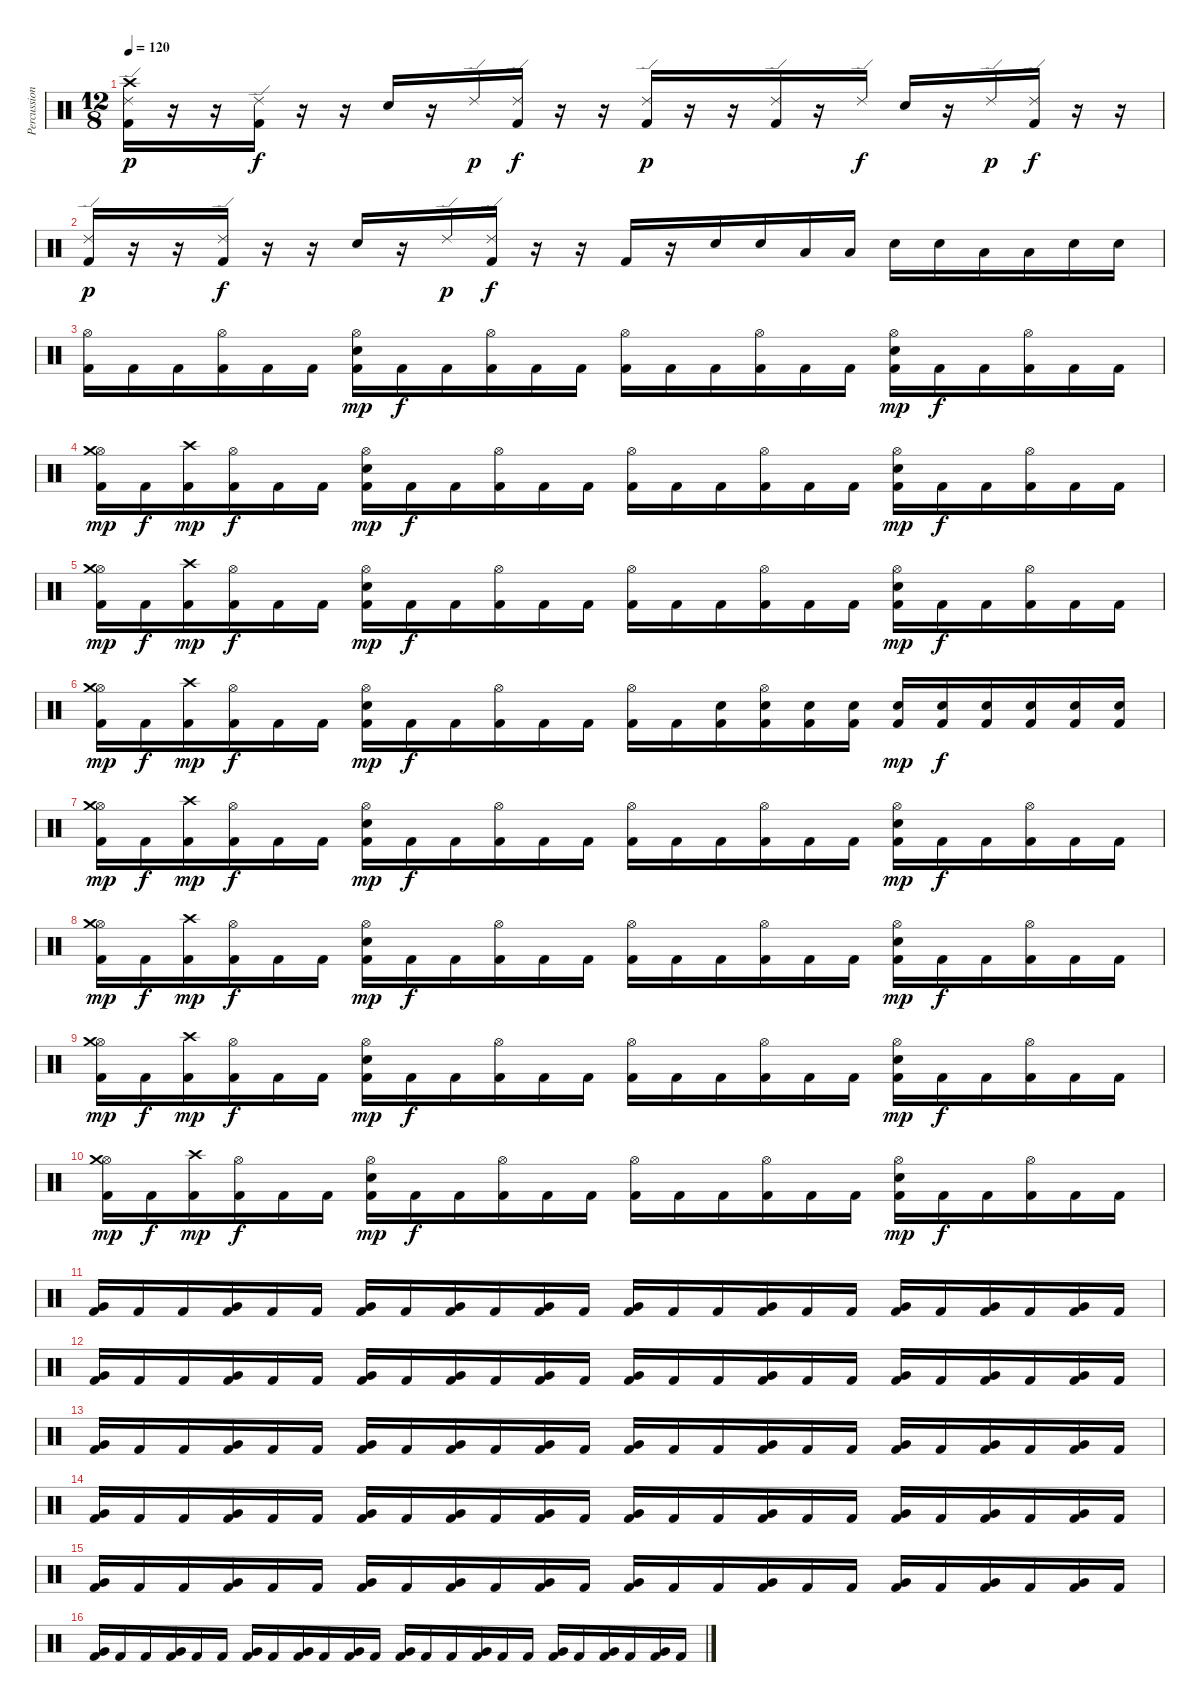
\track ("Percussions" "Percussion") {instrument percussion}
\staff {score}
\articulation defaults
\ts (12 8)
\tempo 120
\clef neutral
\ks c
("Ride (edge) 2" "Kick (hit) 2" "Crash high (hit)").16{dy p} r.16 r.16 ("Ride (edge) 2" "Kick (hit) 2").16{dy f} r.16 r.16 "Snare (hit) 2".16 r.16 "Ride (edge) 2".16{dy p} ("Ride (edge) 2" "Kick (hit) 2").16{dy f} r.16 r.16 ("Ride (edge) 2" "Kick (hit) 2").16{dy p} r.16 r.16 ("Ride (edge) 2" "Kick (hit) 2").16 r.16 "Ride (edge) 2".16{dy f} "Snare (hit) 2".16 r.16 "Ride (edge) 2".16{dy p} ("Ride (edge) 2" "Kick (hit) 2").16{dy f} r.16 r.16 |
("Ride (edge) 2" "Kick (hit) 2").16{dy p} r.16 r.16 ("Ride (edge) 2" "Kick (hit) 2").16{dy f} r.16 r.16 "Snare (hit) 2".16 r.16 "Ride (edge) 2".16{dy p} ("Ride (edge) 2" "Kick (hit) 2").16{dy f} r.16 r.16 "Kick (hit) 2".16 r.16 "Snare (hit) 2".16 "Snare (hit) 2".16 "Low Tom (hit)".16 "Low Tom (hit)".16 "Snare (hit) 2".16 "Snare (hit) 2".16 "Low Tom (hit)".16 "Low Tom (hit)".16 "Snare (hit) 2".16 "Snare (hit) 2".16 |
("Hi-Hat (open)" "Kick (hit) 2").16 "Kick (hit) 2".16 "Kick (hit) 2".16 ("Hi-Hat (open)" "Kick (hit) 2").16 "Kick (hit) 2".16 "Kick (hit) 2".16 ("Hi-Hat (open)" "Kick (hit) 2" "Snare (hit) 2").16{dy mp} "Kick (hit) 2".16{dy f} "Kick (hit) 2".16 ("Hi-Hat (open)" "Kick (hit) 2").16 "Kick (hit) 2".16 "Kick (hit) 2".16 ("Hi-Hat (open)" "Kick (hit) 2").16 "Kick (hit) 2".16 "Kick (hit) 2".16 ("Hi-Hat (open)" "Kick (hit) 2").16 "Kick (hit) 2".16 "Kick (hit) 2".16 ("Hi-Hat (open)" "Kick (hit) 2" "Snare (hit) 2").16{dy mp} "Kick (hit) 2".16{dy f} "Kick (hit) 2".16 ("Hi-Hat (open)" "Kick (hit) 2").16 "Kick (hit) 2".16 "Kick (hit) 2".16 |
("Hi-Hat (open)" "Kick (hit) 2" "Crash medium (hit)").16{dy mp} "Kick (hit) 2".16{dy f} ("Kick (hit) 2" "Crash high (hit)").16{dy mp} ("Hi-Hat (open)" "Kick (hit) 2").16{dy f} "Kick (hit) 2".16 "Kick (hit) 2".16 ("Hi-Hat (open)" "Kick (hit) 2" "Snare (hit) 2").16{dy mp} "Kick (hit) 2".16{dy f} "Kick (hit) 2".16 ("Hi-Hat (open)" "Kick (hit) 2").16 "Kick (hit) 2".16 "Kick (hit) 2".16 ("Hi-Hat (open)" "Kick (hit) 2").16 "Kick (hit) 2".16 "Kick (hit) 2".16 ("Hi-Hat (open)" "Kick (hit) 2").16 "Kick (hit) 2".16 "Kick (hit) 2".16 ("Hi-Hat (open)" "Kick (hit) 2" "Snare (hit) 2").16{dy mp} "Kick (hit) 2".16{dy f} "Kick (hit) 2".16 ("Hi-Hat (open)" "Kick (hit) 2").16 "Kick (hit) 2".16 "Kick (hit) 2".16 |
("Hi-Hat (open)" "Kick (hit) 2" "Crash medium (hit)").16{dy mp} "Kick (hit) 2".16{dy f} ("Kick (hit) 2" "Crash high (hit)").16{dy mp} ("Hi-Hat (open)" "Kick (hit) 2").16{dy f} "Kick (hit) 2".16 "Kick (hit) 2".16 ("Hi-Hat (open)" "Kick (hit) 2" "Snare (hit) 2").16{dy mp} "Kick (hit) 2".16{dy f} "Kick (hit) 2".16 ("Hi-Hat (open)" "Kick (hit) 2").16 "Kick (hit) 2".16 "Kick (hit) 2".16 ("Hi-Hat (open)" "Kick (hit) 2").16 "Kick (hit) 2".16 "Kick (hit) 2".16 ("Hi-Hat (open)" "Kick (hit) 2").16 "Kick (hit) 2".16 "Kick (hit) 2".16 ("Hi-Hat (open)" "Kick (hit) 2" "Snare (hit) 2").16{dy mp} "Kick (hit) 2".16{dy f} "Kick (hit) 2".16 ("Hi-Hat (open)" "Kick (hit) 2").16 "Kick (hit) 2".16 "Kick (hit) 2".16 |
("Hi-Hat (open)" "Kick (hit) 2" "Crash medium (hit)").16{dy mp} "Kick (hit) 2".16{dy f} ("Kick (hit) 2" "Crash high (hit)").16{dy mp} ("Hi-Hat (open)" "Kick (hit) 2").16{dy f} "Kick (hit) 2".16 "Kick (hit) 2".16 ("Hi-Hat (open)" "Kick (hit) 2" "Snare (hit) 2").16{dy mp} "Kick (hit) 2".16{dy f} "Kick (hit) 2".16 ("Hi-Hat (open)" "Kick (hit) 2").16 "Kick (hit) 2".16 "Kick (hit) 2".16 ("Hi-Hat (open)" "Kick (hit) 2").16 "Kick (hit) 2".16 ("Kick (hit) 2" "Snare (hit) 2").16 ("Hi-Hat (open)" "Kick (hit) 2" "Snare (hit) 2").16 ("Kick (hit) 2" "Snare (hit) 2").16 ("Kick (hit) 2" "Snare (hit) 2").16 ("Kick (hit) 2" "Snare (hit) 2").16{dy mp} ("Kick (hit) 2" "Snare (hit) 2").16{dy f} ("Kick (hit) 2" "Snare (hit) 2").16 ("Kick (hit) 2" "Snare (hit) 2").16 ("Kick (hit) 2" "Snare (hit) 2").16 ("Kick (hit) 2" "Snare (hit) 2").16 |
("Hi-Hat (open)" "Kick (hit) 2" "Crash medium (hit)").16{dy mp} "Kick (hit) 2".16{dy f} ("Kick (hit) 2" "Crash high (hit)").16{dy mp} ("Hi-Hat (open)" "Kick (hit) 2").16{dy f} "Kick (hit) 2".16 "Kick (hit) 2".16 ("Hi-Hat (open)" "Kick (hit) 2" "Snare (hit) 2").16{dy mp} "Kick (hit) 2".16{dy f} "Kick (hit) 2".16 ("Hi-Hat (open)" "Kick (hit) 2").16 "Kick (hit) 2".16 "Kick (hit) 2".16 ("Hi-Hat (open)" "Kick (hit) 2").16 "Kick (hit) 2".16 "Kick (hit) 2".16 ("Hi-Hat (open)" "Kick (hit) 2").16 "Kick (hit) 2".16 "Kick (hit) 2".16 ("Hi-Hat (open)" "Kick (hit) 2" "Snare (hit) 2").16{dy mp} "Kick (hit) 2".16{dy f} "Kick (hit) 2".16 ("Hi-Hat (open)" "Kick (hit) 2").16 "Kick (hit) 2".16 "Kick (hit) 2".16 |
("Hi-Hat (open)" "Kick (hit) 2" "Crash medium (hit)").16{dy mp} "Kick (hit) 2".16{dy f} ("Kick (hit) 2" "Crash high (hit)").16{dy mp} ("Hi-Hat (open)" "Kick (hit) 2").16{dy f} "Kick (hit) 2".16 "Kick (hit) 2".16 ("Hi-Hat (open)" "Kick (hit) 2" "Snare (hit) 2").16{dy mp} "Kick (hit) 2".16{dy f} "Kick (hit) 2".16 ("Hi-Hat (open)" "Kick (hit) 2").16 "Kick (hit) 2".16 "Kick (hit) 2".16 ("Hi-Hat (open)" "Kick (hit) 2").16 "Kick (hit) 2".16 "Kick (hit) 2".16 ("Hi-Hat (open)" "Kick (hit) 2").16 "Kick (hit) 2".16 "Kick (hit) 2".16 ("Hi-Hat (open)" "Kick (hit) 2" "Snare (hit) 2").16{dy mp} "Kick (hit) 2".16{dy f} "Kick (hit) 2".16 ("Hi-Hat (open)" "Kick (hit) 2").16 "Kick (hit) 2".16 "Kick (hit) 2".16 |
("Hi-Hat (open)" "Kick (hit) 2" "Crash medium (hit)").16{dy mp} "Kick (hit) 2".16{dy f} ("Kick (hit) 2" "Crash high (hit)").16{dy mp} ("Hi-Hat (open)" "Kick (hit) 2").16{dy f} "Kick (hit) 2".16 "Kick (hit) 2".16 ("Hi-Hat (open)" "Kick (hit) 2" "Snare (hit) 2").16{dy mp} "Kick (hit) 2".16{dy f} "Kick (hit) 2".16 ("Hi-Hat (open)" "Kick (hit) 2").16 "Kick (hit) 2".16 "Kick (hit) 2".16 ("Hi-Hat (open)" "Kick (hit) 2").16 "Kick (hit) 2".16 "Kick (hit) 2".16 ("Hi-Hat (open)" "Kick (hit) 2").16 "Kick (hit) 2".16 "Kick (hit) 2".16 ("Hi-Hat (open)" "Kick (hit) 2" "Snare (hit) 2").16{dy mp} "Kick (hit) 2".16{dy f} "Kick (hit) 2".16 ("Hi-Hat (open)" "Kick (hit) 2").16 "Kick (hit) 2".16 "Kick (hit) 2".16 |
("Hi-Hat (open)" "Kick (hit) 2" "Crash medium (hit)").16{dy mp} "Kick (hit) 2".16{dy f} ("Kick (hit) 2" "Crash high (hit)").16{dy mp} ("Hi-Hat (open)" "Kick (hit) 2").16{dy f} "Kick (hit) 2".16 "Kick (hit) 2".16 ("Hi-Hat (open)" "Kick (hit) 2" "Snare (hit) 2").16{dy mp} "Kick (hit) 2".16{dy f} "Kick (hit) 2".16 ("Hi-Hat (open)" "Kick (hit) 2").16 "Kick (hit) 2".16 "Kick (hit) 2".16 ("Hi-Hat (open)" "Kick (hit) 2").16 "Kick (hit) 2".16 "Kick (hit) 2".16 ("Hi-Hat (open)" "Kick (hit) 2").16 "Kick (hit) 2".16 "Kick (hit) 2".16 ("Hi-Hat (open)" "Kick (hit) 2" "Snare (hit) 2").16{dy mp} "Kick (hit) 2".16{dy f} "Kick (hit) 2".16 ("Hi-Hat (open)" "Kick (hit) 2").16 "Kick (hit) 2".16 "Kick (hit) 2".16 |
("Very Low Tom (hit)" "Kick (hit) 2").16 "Kick (hit) 2".16 "Kick (hit) 2".16 ("Very Low Tom (hit)" "Kick (hit) 2").16 "Kick (hit) 2".16 "Kick (hit) 2".16 ("Very Low Tom (hit)" "Kick (hit) 2").16 "Kick (hit) 2".16 ("Very Low Tom (hit)" "Kick (hit) 2").16 "Kick (hit) 2".16 ("Very Low Tom (hit)" "Kick (hit) 2").16 "Kick (hit) 2".16 ("Very Low Tom (hit)" "Kick (hit) 2").16 "Kick (hit) 2".16 "Kick (hit) 2".16 ("Very Low Tom (hit)" "Kick (hit) 2").16 "Kick (hit) 2".16 "Kick (hit) 2".16 ("Very Low Tom (hit)" "Kick (hit) 2").16 "Kick (hit) 2".16 ("Very Low Tom (hit)" "Kick (hit) 2").16 "Kick (hit) 2".16 ("Very Low Tom (hit)" "Kick (hit) 2").16 "Kick (hit) 2".16 |
("Very Low Tom (hit)" "Kick (hit) 2").16 "Kick (hit) 2".16 "Kick (hit) 2".16 ("Very Low Tom (hit)" "Kick (hit) 2").16 "Kick (hit) 2".16 "Kick (hit) 2".16 ("Very Low Tom (hit)" "Kick (hit) 2").16 "Kick (hit) 2".16 ("Very Low Tom (hit)" "Kick (hit) 2").16 "Kick (hit) 2".16 ("Very Low Tom (hit)" "Kick (hit) 2").16 "Kick (hit) 2".16 ("Very Low Tom (hit)" "Kick (hit) 2").16 "Kick (hit) 2".16 "Kick (hit) 2".16 ("Very Low Tom (hit)" "Kick (hit) 2").16 "Kick (hit) 2".16 "Kick (hit) 2".16 ("Very Low Tom (hit)" "Kick (hit) 2").16 "Kick (hit) 2".16 ("Very Low Tom (hit)" "Kick (hit) 2").16 "Kick (hit) 2".16 ("Very Low Tom (hit)" "Kick (hit) 2").16 "Kick (hit) 2".16 |
("Very Low Tom (hit)" "Kick (hit) 2").16 "Kick (hit) 2".16 "Kick (hit) 2".16 ("Very Low Tom (hit)" "Kick (hit) 2").16 "Kick (hit) 2".16 "Kick (hit) 2".16 ("Very Low Tom (hit)" "Kick (hit) 2").16 "Kick (hit) 2".16 ("Very Low Tom (hit)" "Kick (hit) 2").16 "Kick (hit) 2".16 ("Very Low Tom (hit)" "Kick (hit) 2").16 "Kick (hit) 2".16 ("Very Low Tom (hit)" "Kick (hit) 2").16 "Kick (hit) 2".16 "Kick (hit) 2".16 ("Very Low Tom (hit)" "Kick (hit) 2").16 "Kick (hit) 2".16 "Kick (hit) 2".16 ("Very Low Tom (hit)" "Kick (hit) 2").16 "Kick (hit) 2".16 ("Very Low Tom (hit)" "Kick (hit) 2").16 "Kick (hit) 2".16 ("Very Low Tom (hit)" "Kick (hit) 2").16 "Kick (hit) 2".16 |
("Very Low Tom (hit)" "Kick (hit) 2").16 "Kick (hit) 2".16 "Kick (hit) 2".16 ("Very Low Tom (hit)" "Kick (hit) 2").16 "Kick (hit) 2".16 "Kick (hit) 2".16 ("Very Low Tom (hit)" "Kick (hit) 2").16 "Kick (hit) 2".16 ("Very Low Tom (hit)" "Kick (hit) 2").16 "Kick (hit) 2".16 ("Very Low Tom (hit)" "Kick (hit) 2").16 "Kick (hit) 2".16 ("Very Low Tom (hit)" "Kick (hit) 2").16 "Kick (hit) 2".16 "Kick (hit) 2".16 ("Very Low Tom (hit)" "Kick (hit) 2").16 "Kick (hit) 2".16 "Kick (hit) 2".16 ("Very Low Tom (hit)" "Kick (hit) 2").16 "Kick (hit) 2".16 ("Very Low Tom (hit)" "Kick (hit) 2").16 "Kick (hit) 2".16 ("Very Low Tom (hit)" "Kick (hit) 2").16 "Kick (hit) 2".16 |
("Very Low Tom (hit)" "Kick (hit) 2").16 "Kick (hit) 2".16 "Kick (hit) 2".16 ("Very Low Tom (hit)" "Kick (hit) 2").16 "Kick (hit) 2".16 "Kick (hit) 2".16 ("Very Low Tom (hit)" "Kick (hit) 2").16 "Kick (hit) 2".16 ("Very Low Tom (hit)" "Kick (hit) 2").16 "Kick (hit) 2".16 ("Very Low Tom (hit)" "Kick (hit) 2").16 "Kick (hit) 2".16 ("Very Low Tom (hit)" "Kick (hit) 2").16 "Kick (hit) 2".16 "Kick (hit) 2".16 ("Very Low Tom (hit)" "Kick (hit) 2").16 "Kick (hit) 2".16 "Kick (hit) 2".16 ("Very Low Tom (hit)" "Kick (hit) 2").16 "Kick (hit) 2".16 ("Very Low Tom (hit)" "Kick (hit) 2").16 "Kick (hit) 2".16 ("Very Low Tom (hit)" "Kick (hit) 2").16 "Kick (hit) 2".16 |
("Very Low Tom (hit)" "Kick (hit) 2").16 "Kick (hit) 2".16 "Kick (hit) 2".16 ("Very Low Tom (hit)" "Kick (hit) 2").16 "Kick (hit) 2".16 "Kick (hit) 2".16 ("Very Low Tom (hit)" "Kick (hit) 2").16 "Kick (hit) 2".16 ("Very Low Tom (hit)" "Kick (hit) 2").16 "Kick (hit) 2".16 ("Very Low Tom (hit)" "Kick (hit) 2").16 "Kick (hit) 2".16 ("Very Low Tom (hit)" "Kick (hit) 2").16 "Kick (hit) 2".16 "Kick (hit) 2".16 ("Very Low Tom (hit)" "Kick (hit) 2").16 "Kick (hit) 2".16 "Kick (hit) 2".16 ("Very Low Tom (hit)" "Kick (hit) 2").16 "Kick (hit) 2".16 ("Very Low Tom (hit)" "Kick (hit) 2").16 "Kick (hit) 2".16 ("Very Low Tom (hit)" "Kick (hit) 2").16 "Kick (hit) 2".16
